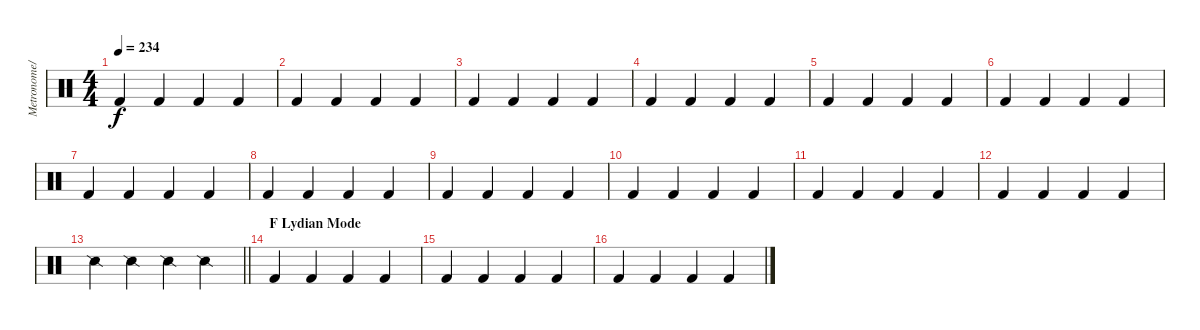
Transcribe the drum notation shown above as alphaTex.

\track ("Metronome/Beat" "Metronome/") {instrument percussion}
\staff {score}
\articulation defaults
\ts (4 4)
\tempo 234
\clef neutral
\ks c "Kick (hit) 2".4{dy f} "Kick (hit) 2".4 "Kick (hit) 2".4 "Kick (hit) 2".4
|
"Kick (hit) 2".4 "Kick (hit) 2".4 "Kick (hit) 2".4 "Kick (hit) 2".4 |
"Kick (hit) 2".4 "Kick (hit) 2".4 "Kick (hit) 2".4 "Kick (hit) 2".4 |
"Kick (hit) 2".4 "Kick (hit) 2".4 "Kick (hit) 2".4 "Kick (hit) 2".4 |
"Kick (hit) 2".4 "Kick (hit) 2".4 "Kick (hit) 2".4 "Kick (hit) 2".4 |
"Kick (hit) 2".4 "Kick (hit) 2".4 "Kick (hit) 2".4 "Kick (hit) 2".4 |
"Kick (hit) 2".4 "Kick (hit) 2".4 "Kick (hit) 2".4 "Kick (hit) 2".4 |
"Kick (hit) 2".4 "Kick (hit) 2".4 "Kick (hit) 2".4 "Kick (hit) 2".4 |
"Kick (hit) 2".4 "Kick (hit) 2".4 "Kick (hit) 2".4 "Kick (hit) 2".4 |
"Kick (hit) 2".4 "Kick (hit) 2".4 "Kick (hit) 2".4 "Kick (hit) 2".4 |
"Kick (hit) 2".4 "Kick (hit) 2".4 "Kick (hit) 2".4 "Kick (hit) 2".4 |
"Kick (hit) 2".4 "Kick (hit) 2".4 "Kick (hit) 2".4 "Kick (hit) 2".4 |
\barLineRight lightlight "Snare (side stick) 2".4 "Snare (side stick) 2".4 "Snare (side stick) 2".4 "Snare (side stick) 2".4
|
\section ("" "F Lydian Mode")
"Kick (hit) 2".4 "Kick (hit) 2".4 "Kick (hit) 2".4 "Kick (hit) 2".4 |
"Kick (hit) 2".4 "Kick (hit) 2".4 "Kick (hit) 2".4 "Kick (hit) 2".4 |
"Kick (hit) 2".4 "Kick (hit) 2".4 "Kick (hit) 2".4 "Kick (hit) 2".4
